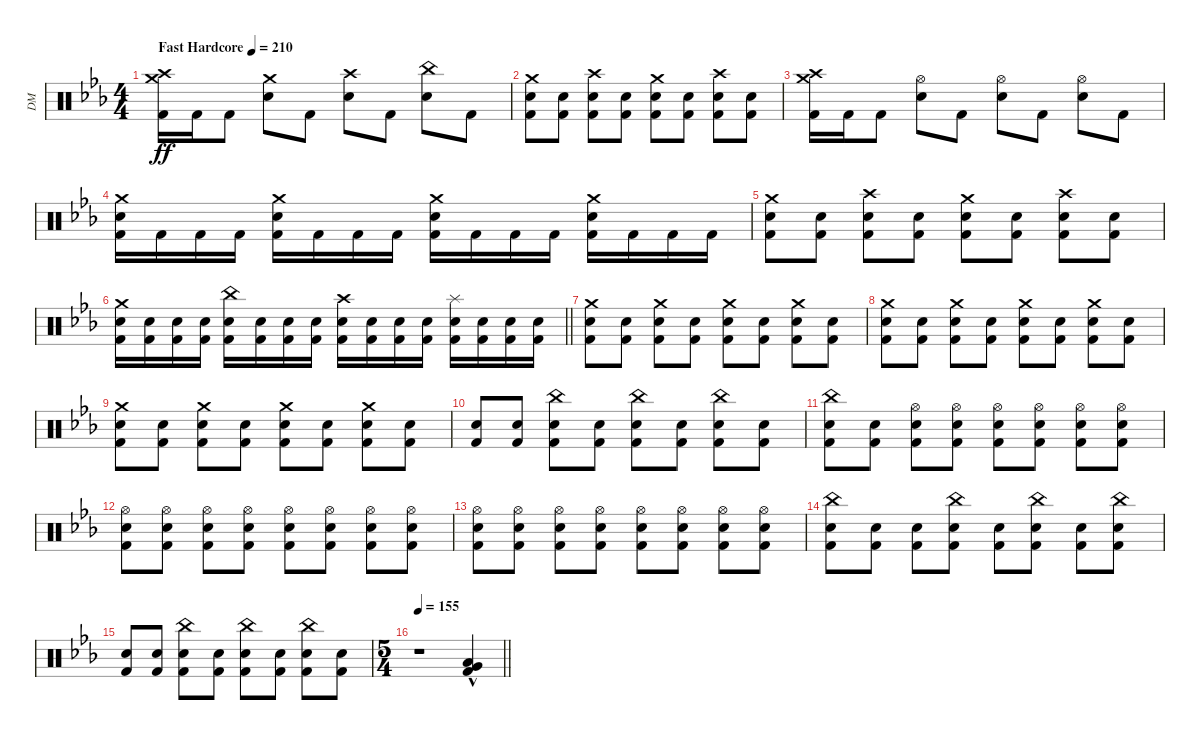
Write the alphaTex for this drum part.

\track ("DM" "DM") {instrument percussion}
\staff {score}
\articulation defaults
\ts (4 4)
\section ("" "")
\tempo (210 "Fast Hardcore")
\clef neutral
\ks cminor
("Crash medium (hit)" "Crash high (hit)" "Kick (hit) 2").16{dy ff} "Kick (hit) 2".16 "Kick (hit) 2".8 ("Crash medium (hit)" "Electric Snare (hit)").8 "Kick (hit) 2".8 ("Crash high (hit)" "Electric Snare (hit)").8 "Kick (hit) 2".8 ("China (hit)" "Electric Snare (hit)").8 "Kick (hit) 2".8 |
("Crash medium (hit)" "Electric Snare (hit)" "Kick (hit) 2").8 ("Electric Snare (hit)" "Kick (hit) 2").8 ("Crash high (hit)" "Electric Snare (hit)" "Kick (hit) 2").8 ("Electric Snare (hit)" "Kick (hit) 2").8 ("Crash medium (hit)" "Electric Snare (hit)" "Kick (hit) 2").8 ("Electric Snare (hit)" "Kick (hit) 2").8 ("Crash high (hit)" "Electric Snare (hit)" "Kick (hit) 2").8 ("Electric Snare (hit)" "Kick (hit) 2").8 |
("Crash medium (hit)" "Crash high (hit)" "Kick (hit) 2").16 "Kick (hit) 2".16 "Kick (hit) 2".8 ("Hi-Hat (open)" "Electric Snare (hit)").8 "Kick (hit) 2".8 ("Hi-Hat (open)" "Electric Snare (hit)").8 "Kick (hit) 2".8 ("Hi-Hat (open)" "Electric Snare (hit)").8 "Kick (hit) 2".8 |
("Crash medium (hit)" "Electric Snare (hit)" "Kick (hit) 2").16 "Kick (hit) 2".16 "Kick (hit) 2".16 "Kick (hit) 2".16 ("Crash medium (hit)" "Electric Snare (hit)" "Kick (hit) 2").16 "Kick (hit) 2".16 "Kick (hit) 2".16 "Kick (hit) 2".16 ("Crash medium (hit)" "Electric Snare (hit)" "Kick (hit) 2").16 "Kick (hit) 2".16 "Kick (hit) 2".16 "Kick (hit) 2".16 ("Crash medium (hit)" "Electric Snare (hit)" "Kick (hit) 2").16 "Kick (hit) 2".16 "Kick (hit) 2".16 "Kick (hit) 2".16 |
("Crash medium (hit)" "Electric Snare (hit)" "Kick (hit) 2").8 ("Electric Snare (hit)" "Kick (hit) 2").8 ("Crash high (hit)" "Electric Snare (hit)" "Kick (hit) 2").8 ("Electric Snare (hit)" "Kick (hit) 2").8 ("Crash medium (hit)" "Electric Snare (hit)" "Kick (hit) 2").8 ("Electric Snare (hit)" "Kick (hit) 2").8 ("Crash high (hit)" "Electric Snare (hit)" "Kick (hit) 2").8 ("Electric Snare (hit)" "Kick (hit) 2").8 |
\barLineRight lightlight
("Crash medium (hit)" "Electric Snare (hit)" "Kick (hit) 2").16 ("Electric Snare (hit)" "Kick (hit) 2").16 ("Electric Snare (hit)" "Kick (hit) 2").16 ("Electric Snare (hit)" "Kick (hit) 2").16 ("China (hit)" "Electric Snare (hit)" "Kick (hit) 2").16 ("Electric Snare (hit)" "Kick (hit) 2").16 ("Electric Snare (hit)" "Kick (hit) 2").16 ("Electric Snare (hit)" "Kick (hit) 2").16 ("Crash high (hit)" "Electric Snare (hit)" "Kick (hit) 2").16 ("Electric Snare (hit)" "Kick (hit) 2").16 ("Electric Snare (hit)" "Kick (hit) 2").16 ("Electric Snare (hit)" "Kick (hit) 2").16 ("Splash (hit)" "Electric Snare (hit)" "Kick (hit) 2").16 ("Electric Snare (hit)" "Kick (hit) 2").16 ("Electric Snare (hit)" "Kick (hit) 2").16 ("Electric Snare (hit)" "Kick (hit) 2").16 |
\section ("" "")
("Crash medium (hit)" "Electric Snare (hit)" "Kick (hit) 2").8 ("Electric Snare (hit)" "Kick (hit) 2").8 ("Crash medium (hit)" "Electric Snare (hit)" "Kick (hit) 2").8 ("Electric Snare (hit)" "Kick (hit) 2").8 ("Crash medium (hit)" "Electric Snare (hit)" "Kick (hit) 2").8 ("Electric Snare (hit)" "Kick (hit) 2").8 ("Crash medium (hit)" "Electric Snare (hit)" "Kick (hit) 2").8 ("Electric Snare (hit)" "Kick (hit) 2").8 |
("Crash medium (hit)" "Electric Snare (hit)" "Kick (hit) 2").8 ("Electric Snare (hit)" "Kick (hit) 2").8 ("Crash medium (hit)" "Electric Snare (hit)" "Kick (hit) 2").8 ("Electric Snare (hit)" "Kick (hit) 2").8 ("Crash medium (hit)" "Electric Snare (hit)" "Kick (hit) 2").8 ("Electric Snare (hit)" "Kick (hit) 2").8 ("Crash medium (hit)" "Electric Snare (hit)" "Kick (hit) 2").8 ("Electric Snare (hit)" "Kick (hit) 2").8 |
("Crash medium (hit)" "Electric Snare (hit)" "Kick (hit) 2").8 ("Electric Snare (hit)" "Kick (hit) 2").8 ("Crash medium (hit)" "Electric Snare (hit)" "Kick (hit) 2").8 ("Electric Snare (hit)" "Kick (hit) 2").8 ("Crash medium (hit)" "Electric Snare (hit)" "Kick (hit) 2").8 ("Electric Snare (hit)" "Kick (hit) 2").8 ("Crash medium (hit)" "Electric Snare (hit)" "Kick (hit) 2").8 ("Electric Snare (hit)" "Kick (hit) 2").8 |
("Electric Snare (hit)" "Kick (hit) 2").8 ("Electric Snare (hit)" "Kick (hit) 2").8 ("China (hit)" "Electric Snare (hit)" "Kick (hit) 2").8 ("Electric Snare (hit)" "Kick (hit) 2").8 ("China (hit)" "Electric Snare (hit)" "Kick (hit) 2").8 ("Electric Snare (hit)" "Kick (hit) 2").8 ("China (hit)" "Electric Snare (hit)" "Kick (hit) 2").8 ("Electric Snare (hit)" "Kick (hit) 2").8 |
("China (hit)" "Electric Snare (hit)" "Kick (hit) 2").8 ("Electric Snare (hit)" "Kick (hit) 2").8 ("Hi-Hat (open)" "Electric Snare (hit)" "Kick (hit) 2").8 ("Hi-Hat (open)" "Electric Snare (hit)" "Kick (hit) 2").8 ("Hi-Hat (open)" "Electric Snare (hit)" "Kick (hit) 2").8 ("Hi-Hat (open)" "Electric Snare (hit)" "Kick (hit) 2").8 ("Hi-Hat (open)" "Electric Snare (hit)" "Kick (hit) 2").8 ("Hi-Hat (open)" "Electric Snare (hit)" "Kick (hit) 2").8 |
("Hi-Hat (open)" "Electric Snare (hit)" "Kick (hit) 2").8 ("Hi-Hat (open)" "Electric Snare (hit)" "Kick (hit) 2").8 ("Hi-Hat (open)" "Electric Snare (hit)" "Kick (hit) 2").8 ("Hi-Hat (open)" "Electric Snare (hit)" "Kick (hit) 2").8 ("Hi-Hat (open)" "Electric Snare (hit)" "Kick (hit) 2").8 ("Hi-Hat (open)" "Electric Snare (hit)" "Kick (hit) 2").8 ("Hi-Hat (open)" "Electric Snare (hit)" "Kick (hit) 2").8 ("Hi-Hat (open)" "Electric Snare (hit)" "Kick (hit) 2").8 |
("Hi-Hat (open)" "Electric Snare (hit)" "Kick (hit) 2").8 ("Hi-Hat (open)" "Electric Snare (hit)" "Kick (hit) 2").8 ("Hi-Hat (open)" "Electric Snare (hit)" "Kick (hit) 2").8 ("Hi-Hat (open)" "Electric Snare (hit)" "Kick (hit) 2").8 ("Hi-Hat (open)" "Electric Snare (hit)" "Kick (hit) 2").8 ("Hi-Hat (open)" "Electric Snare (hit)" "Kick (hit) 2").8 ("Hi-Hat (open)" "Electric Snare (hit)" "Kick (hit) 2").8 ("Hi-Hat (open)" "Electric Snare (hit)" "Kick (hit) 2").8 |
("China (hit)" "Electric Snare (hit)" "Kick (hit) 2").8 ("Electric Snare (hit)" "Kick (hit) 2").8 ("Electric Snare (hit)" "Kick (hit) 2").8 ("China (hit)" "Electric Snare (hit)" "Kick (hit) 2").8 ("Electric Snare (hit)" "Kick (hit) 2").8 ("China (hit)" "Electric Snare (hit)" "Kick (hit) 2").8 ("Electric Snare (hit)" "Kick (hit) 2").8 ("China (hit)" "Electric Snare (hit)" "Kick (hit) 2").8 |
("Electric Snare (hit)" "Kick (hit) 2").8 ("Electric Snare (hit)" "Kick (hit) 2").8 ("China (hit)" "Electric Snare (hit)" "Kick (hit) 2").8 ("Electric Snare (hit)" "Kick (hit) 2").8 ("China (hit)" "Electric Snare (hit)" "Kick (hit) 2").8 ("Electric Snare (hit)" "Kick (hit) 2").8 ("China (hit)" "Electric Snare (hit)" "Kick (hit) 2").8 ("Electric Snare (hit)" "Kick (hit) 2").8 |
\ts (5 4)
\tempo 155
\barLineRight lightlight
r.1 ("Very Low Tom (hit)"{hac} "Low Floor Tom (hit)"{hac} "Kick (hit) 2"{hac}).4
